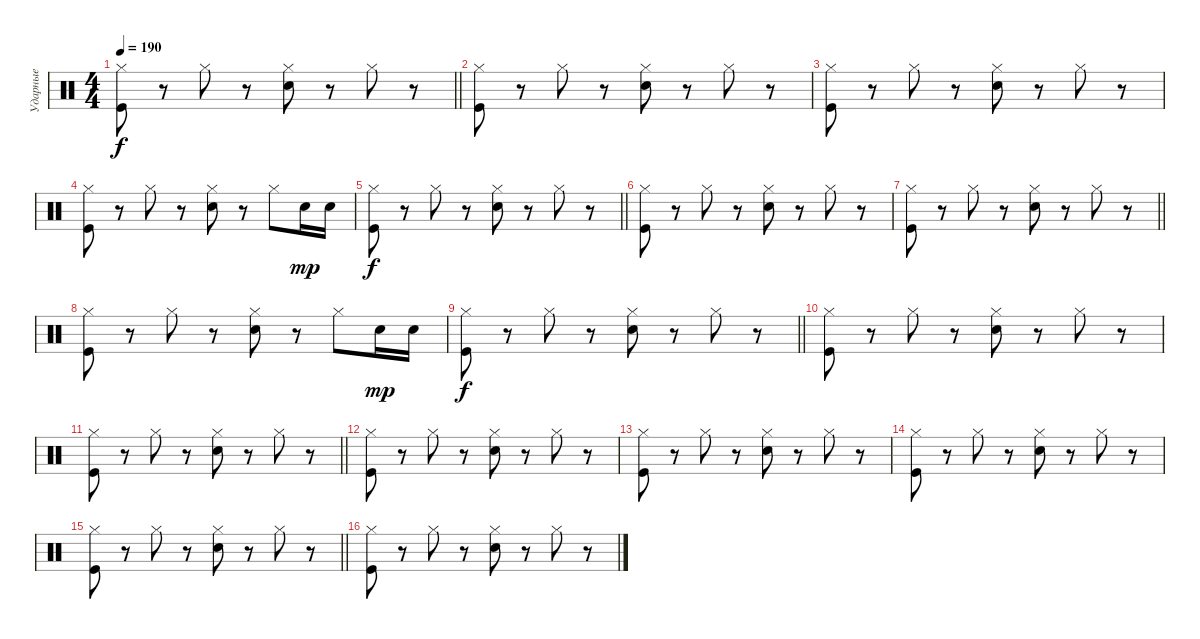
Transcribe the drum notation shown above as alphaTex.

\track ("Ударные" "Ударные") {instrument percussion}
\staff {score}
\articulation defaults
\ts (4 4)
\tempo 190
\clef neutral
\barLineRight lightlight
\ks c
("Hi-Hat (closed)" "Kick (hit)").8{dy f} r.8 "Hi-Hat (closed)".8 r.8 ("Hi-Hat (closed)" "Electric Snare (hit)").8 r.8 "Hi-Hat (closed)".8 r.8 |
\section ("" " ")
("Hi-Hat (closed)" "Kick (hit)").8 r.8 "Hi-Hat (closed)".8 r.8 ("Hi-Hat (closed)" "Electric Snare (hit)").8 r.8 "Hi-Hat (closed)".8 r.8 |
("Hi-Hat (closed)" "Kick (hit)").8 r.8 "Hi-Hat (closed)".8 r.8 ("Hi-Hat (closed)" "Electric Snare (hit)").8 r.8 "Hi-Hat (closed)".8 r.8 |
("Hi-Hat (closed)" "Kick (hit)").8 r.8 "Hi-Hat (closed)".8 r.8 ("Hi-Hat (closed)" "Electric Snare (hit)").8 r.8 "Hi-Hat (closed)".8 "Electric Snare (hit)".16{dy mp} "Electric Snare (hit)".16 |
\barLineRight lightlight
("Hi-Hat (closed)" "Kick (hit)").8{dy f} r.8 "Hi-Hat (closed)".8 r.8 ("Hi-Hat (closed)" "Electric Snare (hit)").8 r.8 "Hi-Hat (closed)".8 r.8 |
("Hi-Hat (closed)" "Kick (hit)").8 r.8 "Hi-Hat (closed)".8 r.8 ("Hi-Hat (closed)" "Electric Snare (hit)").8 r.8 "Hi-Hat (closed)".8 r.8 |
\barLineRight lightlight
("Hi-Hat (closed)" "Kick (hit)").8 r.8 "Hi-Hat (closed)".8 r.8 ("Hi-Hat (closed)" "Electric Snare (hit)").8 r.8 "Hi-Hat (closed)".8 r.8 |
("Hi-Hat (closed)" "Kick (hit)").8 r.8 "Hi-Hat (closed)".8 r.8 ("Hi-Hat (closed)" "Electric Snare (hit)").8 r.8 "Hi-Hat (closed)".8 "Electric Snare (hit)".16{dy mp} "Electric Snare (hit)".16 |
\barLineRight lightlight
("Hi-Hat (closed)" "Kick (hit)").8{dy f} r.8 "Hi-Hat (closed)".8 r.8 ("Hi-Hat (closed)" "Electric Snare (hit)").8 r.8 "Hi-Hat (closed)".8 r.8 |
\section ("" " ")
("Hi-Hat (closed)" "Kick (hit)").8 r.8 "Hi-Hat (closed)".8 r.8 ("Hi-Hat (closed)" "Electric Snare (hit)").8 r.8 "Hi-Hat (closed)".8 r.8 |
\barLineRight lightlight
("Hi-Hat (closed)" "Kick (hit)").8 r.8 "Hi-Hat (closed)".8 r.8 ("Hi-Hat (closed)" "Electric Snare (hit)").8 r.8 "Hi-Hat (closed)".8 r.8 |
("Hi-Hat (closed)" "Kick (hit)").8 r.8 "Hi-Hat (closed)".8 r.8 ("Hi-Hat (closed)" "Electric Snare (hit)").8 r.8 "Hi-Hat (closed)".8 r.8 |
("Hi-Hat (closed)" "Kick (hit)").8 r.8 "Hi-Hat (closed)".8 r.8 ("Hi-Hat (closed)" "Electric Snare (hit)").8 r.8 "Hi-Hat (closed)".8 r.8 |
("Hi-Hat (closed)" "Kick (hit)").8 r.8 "Hi-Hat (closed)".8 r.8 ("Hi-Hat (closed)" "Electric Snare (hit)").8 r.8 "Hi-Hat (closed)".8 r.8 |
\barLineRight lightlight
("Hi-Hat (closed)" "Kick (hit)").8 r.8 "Hi-Hat (closed)".8 r.8 ("Hi-Hat (closed)" "Electric Snare (hit)").8 r.8 "Hi-Hat (closed)".8 r.8 |
("Hi-Hat (closed)" "Kick (hit)").8 r.8 "Hi-Hat (closed)".8 r.8 ("Hi-Hat (closed)" "Electric Snare (hit)").8 r.8 "Hi-Hat (closed)".8 r.8
